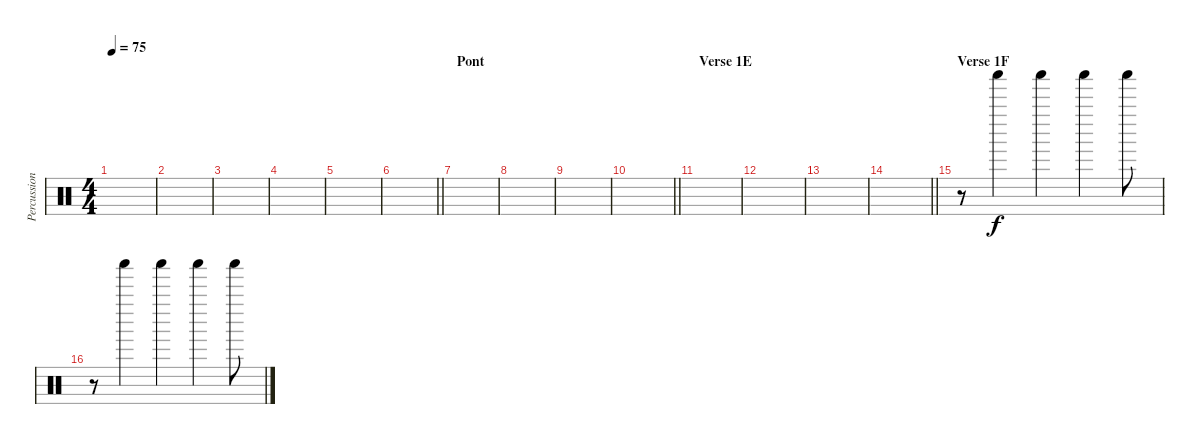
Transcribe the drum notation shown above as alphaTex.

\track ("Percussions" "Percussion") {instrument percussion}
\staff {score}
\articulation defaults
\ts (4 4)
\tempo 75
\clef neutral
\ks c
|
|
|
|
|
\barLineRight lightlight
|
\section ("" "Pont")
|
|
|
\barLineRight lightlight
|
\section ("" "Verse 1E")
|
|
|
\barLineRight lightlight
|
\section ("" "Verse 1F")
r.8 "Shaker (hit)".4 "Shaker (hit)".4 "Shaker (hit)".4 "Shaker (hit)".8 |
r.8 "Shaker (hit)".4 "Shaker (hit)".4 "Shaker (hit)".4 "Shaker (hit)".8
